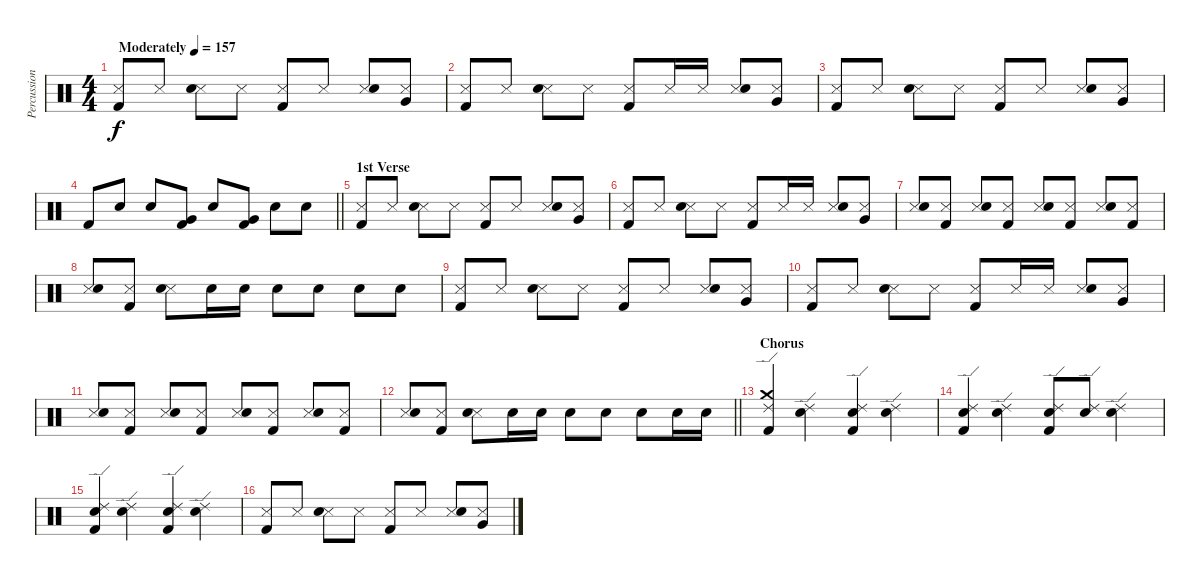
\track ("Percussion" "Percussion") {instrument percussion}
\staff {score}
\articulation defaults
\ts (4 4)
\tempo (157 "Moderately")
\clef neutral
\ks c
("Metronome (hit)" "Kick (hit) 2").8{dy f} "Metronome (hit)".8 ("Metronome (hit)" "Snare (hit) 2").8 "Metronome (hit)".8 ("Metronome (hit)" "Kick (hit) 2").8 "Metronome (hit)".8 ("Metronome (hit)" "Snare (hit) 2").8 ("Metronome (hit)" "Very Low Tom (hit)").8 |
("Metronome (hit)" "Kick (hit) 2").8 "Metronome (hit)".8 ("Metronome (hit)" "Snare (hit) 2").8 "Metronome (hit)".8 ("Metronome (hit)" "Kick (hit) 2").8 "Metronome (hit)".16 "Metronome (hit)".16 ("Metronome (hit)" "Snare (hit) 2").8 ("Metronome (hit)" "Very Low Tom (hit)").8 |
("Metronome (hit)" "Kick (hit) 2").8 "Metronome (hit)".8 ("Metronome (hit)" "Snare (hit) 2").8 "Metronome (hit)".8 ("Metronome (hit)" "Kick (hit) 2").8 "Metronome (hit)".8 ("Metronome (hit)" "Snare (hit) 2").8 ("Metronome (hit)" "Very Low Tom (hit)").8 |
\barLineRight lightlight "Kick (hit) 2".8 "Snare (hit) 2".8 "Snare (hit) 2".8
("Very Low Tom (hit)" "Kick (hit) 2").8 "Snare (hit) 2".8 ("Very Low Tom (hit)" "Kick (hit) 2").8 "Snare (hit) 2".8 "Snare (hit) 2".8 |
\section ("" "1st Verse")
("Metronome (hit)" "Kick (hit) 2").8 "Metronome (hit)".8 ("Metronome (hit)" "Snare (hit) 2").8 "Metronome (hit)".8 ("Metronome (hit)" "Kick (hit) 2").8 "Metronome (hit)".8 ("Metronome (hit)" "Snare (hit) 2").8 ("Metronome (hit)" "Very Low Tom (hit)").8 |
("Metronome (hit)" "Kick (hit) 2").8 "Metronome (hit)".8 ("Metronome (hit)" "Snare (hit) 2").8 "Metronome (hit)".8 ("Metronome (hit)" "Kick (hit) 2").8 "Metronome (hit)".16 "Metronome (hit)".16 ("Metronome (hit)" "Snare (hit) 2").8 ("Metronome (hit)" "Very Low Tom (hit)").8 |
("Metronome (hit)" "Snare (hit) 2").8 ("Metronome (hit)" "Kick (hit) 2").8 ("Metronome (hit)" "Snare (hit) 2").8 ("Metronome (hit)" "Kick (hit) 2").8 ("Metronome (hit)" "Snare (hit) 2").8 ("Metronome (hit)" "Kick (hit) 2").8 ("Metronome (hit)" "Snare (hit) 2").8 ("Metronome (hit)" "Kick (hit) 2").8 |
("Metronome (hit)" "Snare (hit) 2").8 ("Metronome (hit)" "Kick (hit) 2").8 ("Metronome (hit)" "Snare (hit) 2").8 "Snare (hit) 2".16 "Snare (hit) 2".16 "Snare (hit) 2".8 "Snare (hit) 2".8 "Snare (hit) 2".8 "Snare (hit) 2".8 |
("Metronome (hit)" "Kick (hit) 2").8 "Metronome (hit)".8 ("Metronome (hit)" "Snare (hit) 2").8 "Metronome (hit)".8 ("Metronome (hit)" "Kick (hit) 2").8 "Metronome (hit)".8 ("Metronome (hit)" "Snare (hit) 2").8 ("Metronome (hit)" "Very Low Tom (hit)").8 |
("Metronome (hit)" "Kick (hit) 2").8 "Metronome (hit)".8 ("Metronome (hit)" "Snare (hit) 2").8 "Metronome (hit)".8 ("Metronome (hit)" "Kick (hit) 2").8 "Metronome (hit)".16 "Metronome (hit)".16 ("Metronome (hit)" "Snare (hit) 2").8 ("Metronome (hit)" "Very Low Tom (hit)").8 |
("Metronome (hit)" "Snare (hit) 2").8 ("Metronome (hit)" "Kick (hit) 2").8 ("Metronome (hit)" "Snare (hit) 2").8 ("Metronome (hit)" "Kick (hit) 2").8 ("Metronome (hit)" "Snare (hit) 2").8 ("Metronome (hit)" "Kick (hit) 2").8 ("Metronome (hit)" "Snare (hit) 2").8 ("Metronome (hit)" "Kick (hit) 2").8 |
\barLineRight lightlight
("Metronome (hit)" "Snare (hit) 2").8 ("Metronome (hit)" "Kick (hit) 2").8 ("Metronome (hit)" "Snare (hit) 2").8 "Snare (hit) 2".16 "Snare (hit) 2".16 "Snare (hit) 2".8 "Snare (hit) 2".8 "Snare (hit) 2".8 "Snare (hit) 2".16 "Snare (hit) 2".16 |
\section ("" "Chorus")
("Crash medium (hit)" "Ride (edge) 2" "Kick (hit) 2").4 ("Ride (edge) 2" "Snare (hit) 2").4 ("Ride (edge) 2" "Snare (hit) 2" "Kick (hit) 2").4 ("Ride (edge) 2" "Snare (hit) 2").4 |
("Ride (edge) 2" "Snare (hit) 2" "Kick (hit) 2").4 ("Ride (edge) 2" "Snare (hit) 2").4 ("Ride (edge) 2" "Snare (hit) 2" "Kick (hit) 2").8 ("Ride (edge) 2" "Snare (hit) 2").8 ("Ride (edge) 2" "Snare (hit) 2").4 |
("Ride (edge) 2" "Snare (hit) 2" "Kick (hit) 2").4 ("Ride (edge) 2" "Snare (hit) 2").4 ("Ride (edge) 2" "Snare (hit) 2" "Kick (hit) 2").4 ("Ride (edge) 2" "Snare (hit) 2").4 |
("Metronome (hit)" "Kick (hit) 2").8 "Metronome (hit)".8 ("Metronome (hit)" "Snare (hit) 2").8 "Metronome (hit)".8 ("Metronome (hit)" "Kick (hit) 2").8 "Metronome (hit)".8 ("Metronome (hit)" "Snare (hit) 2").8 ("Metronome (hit)" "Very Low Tom (hit)").8
